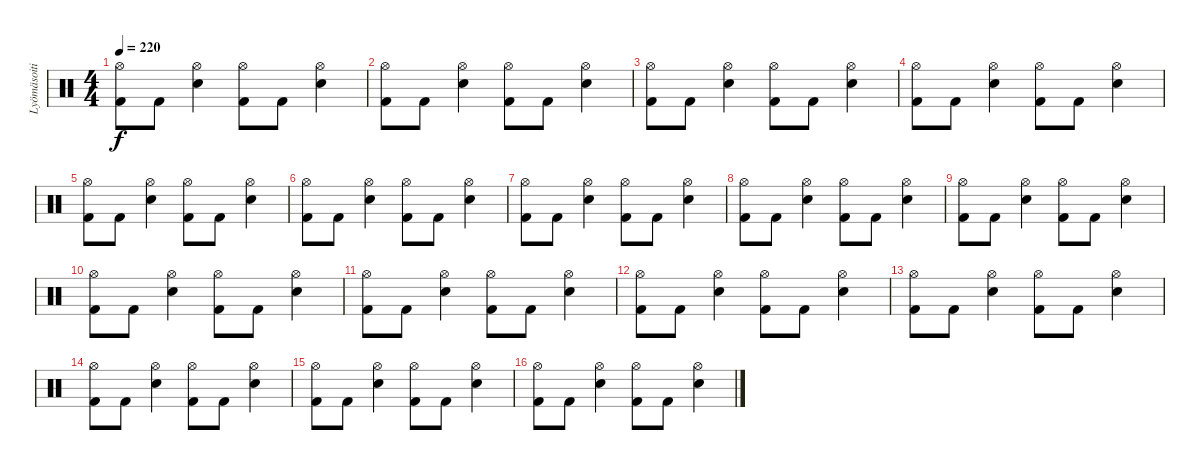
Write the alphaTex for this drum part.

\track ("Lyömäsoitin" "Lyömäsoiti") {instrument percussion}
\staff {score}
\articulation defaults
\ts (4 4)
\tempo 220
\clef neutral
\ks c
("Hi-Hat (open)" "Kick (hit) 2").8{dy f} "Kick (hit) 2".8 ("Hi-Hat (open)" "Snare (hit) 2").4 ("Hi-Hat (open)" "Kick (hit) 2").8 "Kick (hit) 2".8 ("Hi-Hat (open)" "Snare (hit) 2").4 |
("Hi-Hat (open)" "Kick (hit) 2").8 "Kick (hit) 2".8 ("Hi-Hat (open)" "Snare (hit) 2").4 ("Hi-Hat (open)" "Kick (hit) 2").8 "Kick (hit) 2".8 ("Hi-Hat (open)" "Snare (hit) 2").4 |
("Hi-Hat (open)" "Kick (hit) 2").8 "Kick (hit) 2".8 ("Hi-Hat (open)" "Snare (hit) 2").4 ("Hi-Hat (open)" "Kick (hit) 2").8 "Kick (hit) 2".8 ("Hi-Hat (open)" "Snare (hit) 2").4 |
("Hi-Hat (open)" "Kick (hit) 2").8 "Kick (hit) 2".8 ("Hi-Hat (open)" "Snare (hit) 2").4 ("Hi-Hat (open)" "Kick (hit) 2").8 "Kick (hit) 2".8 ("Hi-Hat (open)" "Snare (hit) 2").4 |
("Hi-Hat (open)" "Kick (hit) 2").8 "Kick (hit) 2".8 ("Hi-Hat (open)" "Snare (hit) 2").4 ("Hi-Hat (open)" "Kick (hit) 2").8 "Kick (hit) 2".8 ("Hi-Hat (open)" "Snare (hit) 2").4 |
("Hi-Hat (open)" "Kick (hit) 2").8 "Kick (hit) 2".8 ("Hi-Hat (open)" "Snare (hit) 2").4 ("Hi-Hat (open)" "Kick (hit) 2").8 "Kick (hit) 2".8 ("Hi-Hat (open)" "Snare (hit) 2").4 |
("Hi-Hat (open)" "Kick (hit) 2").8 "Kick (hit) 2".8 ("Hi-Hat (open)" "Snare (hit) 2").4 ("Hi-Hat (open)" "Kick (hit) 2").8 "Kick (hit) 2".8 ("Hi-Hat (open)" "Snare (hit) 2").4 |
("Hi-Hat (open)" "Kick (hit) 2").8 "Kick (hit) 2".8 ("Hi-Hat (open)" "Snare (hit) 2").4 ("Hi-Hat (open)" "Kick (hit) 2").8 "Kick (hit) 2".8 ("Hi-Hat (open)" "Snare (hit) 2").4 |
("Hi-Hat (open)" "Kick (hit) 2").8 "Kick (hit) 2".8 ("Hi-Hat (open)" "Snare (hit) 2").4 ("Hi-Hat (open)" "Kick (hit) 2").8 "Kick (hit) 2".8 ("Hi-Hat (open)" "Snare (hit) 2").4 |
("Hi-Hat (open)" "Kick (hit) 2").8 "Kick (hit) 2".8 ("Hi-Hat (open)" "Snare (hit) 2").4 ("Hi-Hat (open)" "Kick (hit) 2").8 "Kick (hit) 2".8 ("Hi-Hat (open)" "Snare (hit) 2").4 |
("Hi-Hat (open)" "Kick (hit) 2").8 "Kick (hit) 2".8 ("Hi-Hat (open)" "Snare (hit) 2").4 ("Hi-Hat (open)" "Kick (hit) 2").8 "Kick (hit) 2".8 ("Hi-Hat (open)" "Snare (hit) 2").4 |
("Hi-Hat (open)" "Kick (hit) 2").8 "Kick (hit) 2".8 ("Hi-Hat (open)" "Snare (hit) 2").4 ("Hi-Hat (open)" "Kick (hit) 2").8 "Kick (hit) 2".8 ("Hi-Hat (open)" "Snare (hit) 2").4 |
("Hi-Hat (open)" "Kick (hit) 2").8 "Kick (hit) 2".8 ("Hi-Hat (open)" "Snare (hit) 2").4 ("Hi-Hat (open)" "Kick (hit) 2").8 "Kick (hit) 2".8 ("Hi-Hat (open)" "Snare (hit) 2").4 |
("Hi-Hat (open)" "Kick (hit) 2").8 "Kick (hit) 2".8 ("Hi-Hat (open)" "Snare (hit) 2").4 ("Hi-Hat (open)" "Kick (hit) 2").8 "Kick (hit) 2".8 ("Hi-Hat (open)" "Snare (hit) 2").4 |
("Hi-Hat (open)" "Kick (hit) 2").8 "Kick (hit) 2".8 ("Hi-Hat (open)" "Snare (hit) 2").4 ("Hi-Hat (open)" "Kick (hit) 2").8 "Kick (hit) 2".8 ("Hi-Hat (open)" "Snare (hit) 2").4 |
("Hi-Hat (open)" "Kick (hit) 2").8 "Kick (hit) 2".8 ("Hi-Hat (open)" "Snare (hit) 2").4 ("Hi-Hat (open)" "Kick (hit) 2").8 "Kick (hit) 2".8 ("Hi-Hat (open)" "Snare (hit) 2").4
